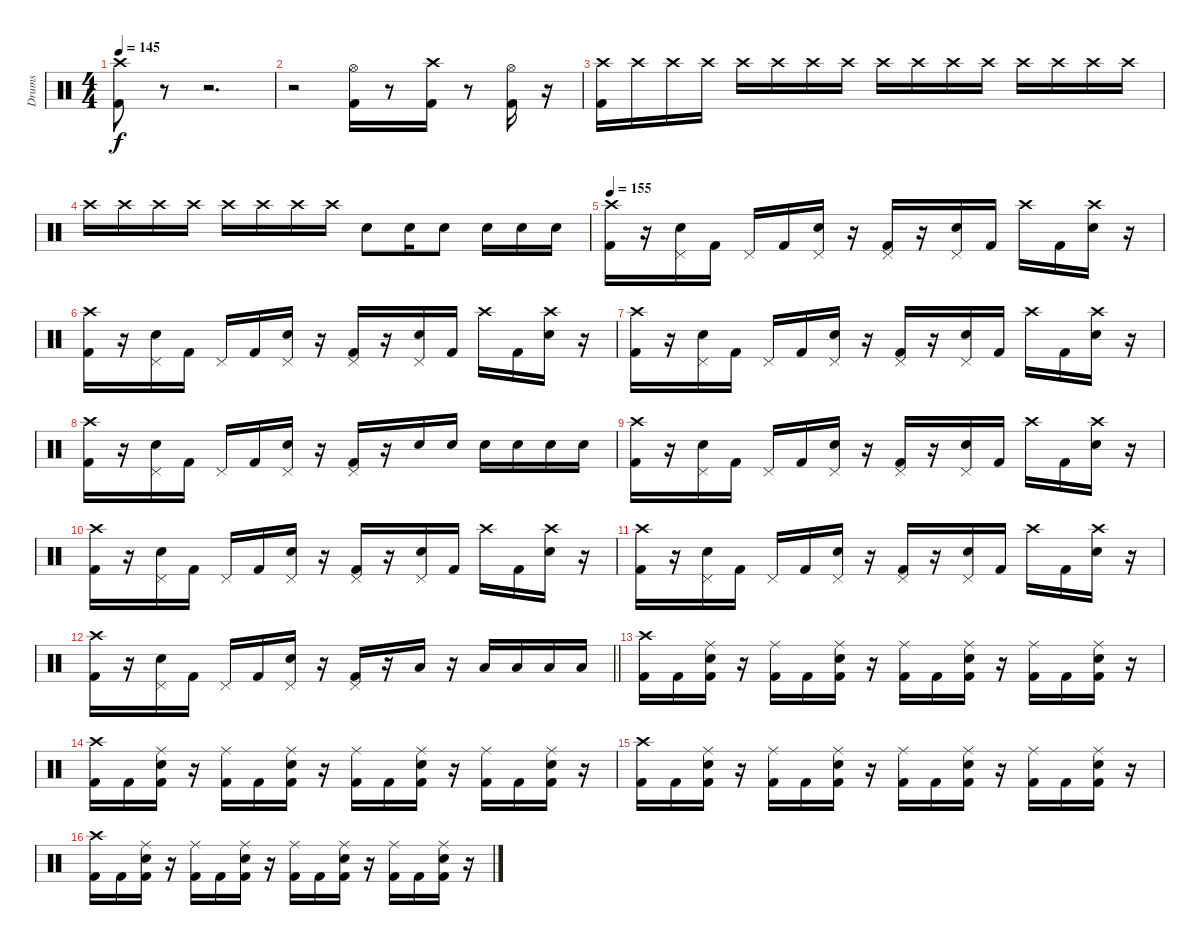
\track ("Drums" "Drums") {instrument percussion}
\staff {score}
\articulation defaults
\ts (4 4)
\tempo 145
\clef neutral
\ks c
("Crash high (hit)" "Kick (hit) 2").8{dy f} r.8 r.2{d} |
r.2 ("Hi-Hat (open)" "Kick (hit) 2").16 r.8 ("Crash high (hit)" "Kick (hit) 2").16 r.8 ("Hi-Hat (open)" "Kick (hit) 2").16 r.16 |
("Crash high (hit)" "Kick (hit) 2").16 "Crash high (hit)".16 "Crash high (hit)".16 "Crash high (hit)".16 "Crash high (hit)".16 "Crash high (hit)".16 "Crash high (hit)".16 "Crash high (hit)".16 "Crash high (hit)".16 "Crash high (hit)".16 "Crash high (hit)".16 "Crash high (hit)".16 "Crash high (hit)".16 "Crash high (hit)".16 "Crash high (hit)".16 "Crash high (hit)".16 |
"Crash high (hit)".16 "Crash high (hit)".16 "Crash high (hit)".16 "Crash high (hit)".16 "Crash high (hit)".16 "Crash high (hit)".16 "Crash high (hit)".16 "Crash high (hit)".16 "Snare (hit) 2".8 "Snare (hit) 2".16 "Snare (hit) 2".8 "Snare (hit) 2".16 "Snare (hit) 2".16 "Snare (hit) 2".16 |
\tempo 155
("Crash high (hit)" "Kick (hit) 2").16 r.16 ("Pedal Hi-Hat (hit)" "Snare (hit) 2").16 "Kick (hit) 2".16 "Pedal Hi-Hat (hit)".16 "Kick (hit) 2".16 ("Pedal Hi-Hat (hit)" "Snare (hit) 2").16 r.16 ("Pedal Hi-Hat (hit)" "Kick (hit) 2").16 r.16 ("Pedal Hi-Hat (hit)" "Snare (hit) 2").16 "Kick (hit) 2".16 "Crash high (hit)".16 "Kick (hit) 2".16 ("Crash high (hit)" "Snare (hit) 2").16 r.16 |
("Crash high (hit)" "Kick (hit) 2").16 r.16 ("Pedal Hi-Hat (hit)" "Snare (hit) 2").16 "Kick (hit) 2".16 "Pedal Hi-Hat (hit)".16 "Kick (hit) 2".16 ("Pedal Hi-Hat (hit)" "Snare (hit) 2").16 r.16 ("Pedal Hi-Hat (hit)" "Kick (hit) 2").16 r.16 ("Pedal Hi-Hat (hit)" "Snare (hit) 2").16 "Kick (hit) 2".16 "Crash high (hit)".16 "Kick (hit) 2".16 ("Crash high (hit)" "Snare (hit) 2").16 r.16 |
("Crash high (hit)" "Kick (hit) 2").16 r.16 ("Pedal Hi-Hat (hit)" "Snare (hit) 2").16 "Kick (hit) 2".16 "Pedal Hi-Hat (hit)".16 "Kick (hit) 2".16 ("Pedal Hi-Hat (hit)" "Snare (hit) 2").16 r.16 ("Pedal Hi-Hat (hit)" "Kick (hit) 2").16 r.16 ("Pedal Hi-Hat (hit)" "Snare (hit) 2").16 "Kick (hit) 2".16 "Crash high (hit)".16 "Kick (hit) 2".16 ("Crash high (hit)" "Snare (hit) 2").16 r.16 |
("Crash high (hit)" "Kick (hit) 2").16 r.16 ("Pedal Hi-Hat (hit)" "Snare (hit) 2").16 "Kick (hit) 2".16 "Pedal Hi-Hat (hit)".16 "Kick (hit) 2".16 ("Pedal Hi-Hat (hit)" "Snare (hit) 2").16 r.16 ("Pedal Hi-Hat (hit)" "Kick (hit) 2").16 r.16 "Snare (hit) 2".16 "Snare (hit) 2".16 "Snare (hit) 2".16 "Snare (hit) 2".16 "Snare (hit) 2".16 "Snare (hit) 2".16 |
("Crash high (hit)" "Kick (hit) 2").16 r.16 ("Pedal Hi-Hat (hit)" "Snare (hit) 2").16 "Kick (hit) 2".16 "Pedal Hi-Hat (hit)".16 "Kick (hit) 2".16 ("Pedal Hi-Hat (hit)" "Snare (hit) 2").16 r.16 ("Pedal Hi-Hat (hit)" "Kick (hit) 2").16 r.16 ("Pedal Hi-Hat (hit)" "Snare (hit) 2").16 "Kick (hit) 2".16 "Crash high (hit)".16 "Kick (hit) 2".16 ("Crash high (hit)" "Snare (hit) 2").16 r.16 |
("Crash high (hit)" "Kick (hit) 2").16 r.16 ("Pedal Hi-Hat (hit)" "Snare (hit) 2").16 "Kick (hit) 2".16 "Pedal Hi-Hat (hit)".16 "Kick (hit) 2".16 ("Pedal Hi-Hat (hit)" "Snare (hit) 2").16 r.16 ("Pedal Hi-Hat (hit)" "Kick (hit) 2").16 r.16 ("Pedal Hi-Hat (hit)" "Snare (hit) 2").16 "Kick (hit) 2".16 "Crash high (hit)".16 "Kick (hit) 2".16 ("Crash high (hit)" "Snare (hit) 2").16 r.16 |
("Crash high (hit)" "Kick (hit) 2").16 r.16 ("Pedal Hi-Hat (hit)" "Snare (hit) 2").16 "Kick (hit) 2".16 "Pedal Hi-Hat (hit)".16 "Kick (hit) 2".16 ("Pedal Hi-Hat (hit)" "Snare (hit) 2").16 r.16 ("Pedal Hi-Hat (hit)" "Kick (hit) 2").16 r.16 ("Pedal Hi-Hat (hit)" "Snare (hit) 2").16 "Kick (hit) 2".16 "Crash high (hit)".16 "Kick (hit) 2".16 ("Crash high (hit)" "Snare (hit) 2").16 r.16 |
\barLineRight lightlight
("Crash high (hit)" "Kick (hit) 2").16 r.16 ("Pedal Hi-Hat (hit)" "Snare (hit) 2").16 "Kick (hit) 2".16 "Pedal Hi-Hat (hit)".16 "Kick (hit) 2".16 ("Pedal Hi-Hat (hit)" "Snare (hit) 2").16 r.16 ("Pedal Hi-Hat (hit)" "Kick (hit) 2").16 r.16 "Low Tom (hit)".16 r.16 "Low Tom (hit)".16 "Low Tom (hit)".16 "Low Tom (hit)".16 "Low Tom (hit)".16 |
("Crash high (hit)" "Kick (hit) 2").16 "Kick (hit) 2".16 ("Ride (middle)" "Snare (hit) 2" "Kick (hit) 2").16 r.16 ("Ride (middle)" "Kick (hit) 2").16 "Kick (hit) 2".16 ("Ride (middle)" "Snare (hit) 2" "Kick (hit) 2").16 r.16 ("Ride (middle)" "Kick (hit) 2").16 "Kick (hit) 2".16 ("Ride (middle)" "Snare (hit) 2" "Kick (hit) 2").16 r.16 ("Ride (middle)" "Kick (hit) 2").16 "Kick (hit) 2".16 ("Ride (middle)" "Snare (hit) 2" "Kick (hit) 2").16 r.16 |
("Crash high (hit)" "Kick (hit) 2").16 "Kick (hit) 2".16 ("Ride (middle)" "Snare (hit) 2" "Kick (hit) 2").16 r.16 ("Ride (middle)" "Kick (hit) 2").16 "Kick (hit) 2".16 ("Ride (middle)" "Snare (hit) 2" "Kick (hit) 2").16 r.16 ("Ride (middle)" "Kick (hit) 2").16 "Kick (hit) 2".16 ("Ride (middle)" "Snare (hit) 2" "Kick (hit) 2").16 r.16 ("Ride (middle)" "Kick (hit) 2").16 "Kick (hit) 2".16 ("Ride (middle)" "Snare (hit) 2" "Kick (hit) 2").16 r.16 |
("Crash high (hit)" "Kick (hit) 2").16 "Kick (hit) 2".16 ("Ride (middle)" "Snare (hit) 2" "Kick (hit) 2").16 r.16 ("Ride (middle)" "Kick (hit) 2").16 "Kick (hit) 2".16 ("Ride (middle)" "Snare (hit) 2" "Kick (hit) 2").16 r.16 ("Ride (middle)" "Kick (hit) 2").16 "Kick (hit) 2".16 ("Ride (middle)" "Snare (hit) 2" "Kick (hit) 2").16 r.16 ("Ride (middle)" "Kick (hit) 2").16 "Kick (hit) 2".16 ("Ride (middle)" "Snare (hit) 2" "Kick (hit) 2").16 r.16 |
("Crash high (hit)" "Kick (hit) 2").16 "Kick (hit) 2".16 ("Ride (middle)" "Snare (hit) 2" "Kick (hit) 2").16 r.16 ("Ride (middle)" "Kick (hit) 2").16 "Kick (hit) 2".16 ("Ride (middle)" "Snare (hit) 2" "Kick (hit) 2").16 r.16 ("Ride (middle)" "Kick (hit) 2").16 "Kick (hit) 2".16 ("Ride (middle)" "Snare (hit) 2" "Kick (hit) 2").16 r.16 ("Ride (middle)" "Kick (hit) 2").16 "Kick (hit) 2".16 ("Ride (middle)" "Snare (hit) 2" "Kick (hit) 2").16 r.16
